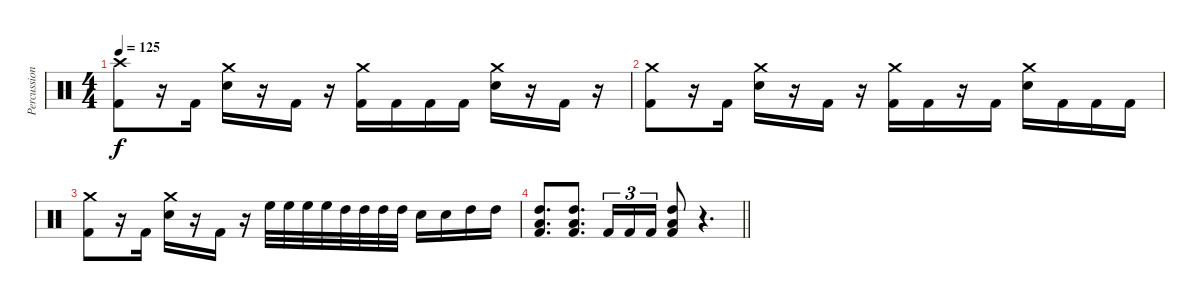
\track ("Percussion" "Percussion") {instrument percussion}
\staff {score}
\articulation defaults
\ts (4 4)
\tempo 125
\clef neutral
\ks c
("Crash high (hit)" "Kick (hit) 2").8{dy f} r.16 "Kick (hit) 2".16 ("Crash medium (hit)" "Snare (hit) 2").16 r.16 "Kick (hit) 2".16 r.16 ("Crash medium (hit)" "Kick (hit) 2").16 "Kick (hit) 2".16 "Kick (hit) 2".16 "Kick (hit) 2".16 ("Crash medium (hit)" "Snare (hit) 2").16 r.16 "Kick (hit) 2".16 r.16 |
("Crash medium (hit)" "Kick (hit) 2").8 r.16 "Kick (hit) 2".16 ("Crash medium (hit)" "Snare (hit) 2").16 r.16 "Kick (hit) 2".16 r.16 ("Crash medium (hit)" "Kick (hit) 2").16 "Kick (hit) 2".16 r.16 "Kick (hit) 2".16 ("Crash medium (hit)" "Snare (hit) 2").16 "Kick (hit) 2".16 "Kick (hit) 2".16 "Kick (hit) 2".16 |
("Crash medium (hit)" "Kick (hit) 2").8 r.16 "Kick (hit) 2".16 ("Crash medium (hit)" "Snare (hit) 2").16 r.16 "Kick (hit) 2".16 r.16 "High Floor Tom (hit)".32 "High Floor Tom (hit)".32 "High Floor Tom (hit)".32 "High Floor Tom (hit)".32 "High Tom (hit)".32 "High Tom (hit)".32 "High Tom (hit)".32 "High Tom (hit)".32 "Snare (hit) 2".16 "Snare (hit) 2".16 "High Tom (hit)".16 "High Tom (hit)".16 |
\barLineRight lightlight
("High Tom (hit)" "Low Tom (hit)" "Kick (hit) 2").8{d} ("High Tom (hit)" "Low Tom (hit)" "Kick (hit) 2").8{d} "Kick (hit) 2".16{tu (3 2)} "Kick (hit) 2".16{tu (3 2)} "Kick (hit) 2".16{tu (3 2)} ("High Tom (hit)" "Low Tom (hit)" "Kick (hit) 2").8 r.4{d}
